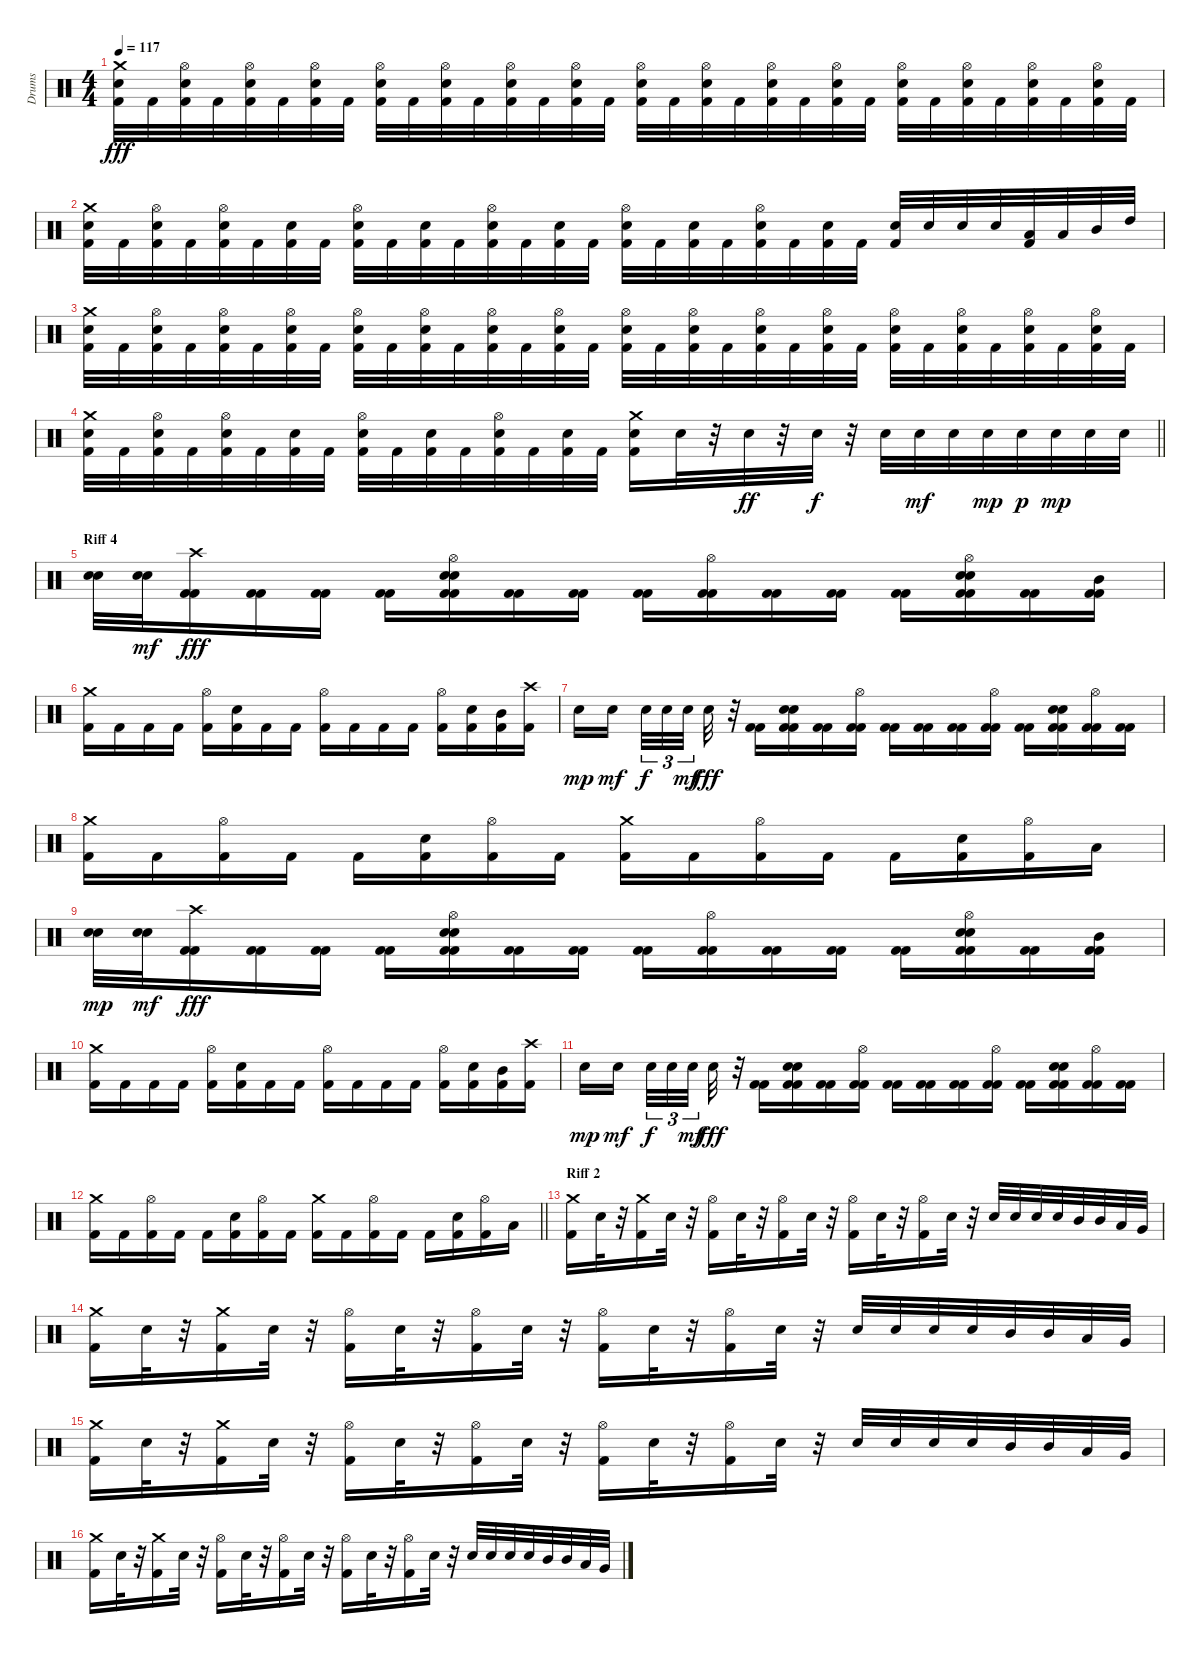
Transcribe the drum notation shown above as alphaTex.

\track ("Drums" "Drums") {instrument percussion}
\staff {score}
\articulation defaults
\ts (4 4)
\tempo 117
\clef neutral
\ks c
("Kick (hit) 2" "Snare (hit) 2" "Crash medium (hit)").32{dy fff} "Kick (hit) 2".32 ("Kick (hit) 2" "Snare (hit) 2" "Hi-Hat (open)").32 "Kick (hit) 2".32 ("Kick (hit) 2" "Snare (hit) 2" "Hi-Hat (open)").32 "Kick (hit) 2".32 ("Kick (hit) 2" "Snare (hit) 2" "Hi-Hat (open)").32 "Kick (hit) 2".32 ("Kick (hit) 2" "Snare (hit) 2" "Hi-Hat (open)").32 "Kick (hit) 2".32 ("Kick (hit) 2" "Snare (hit) 2" "Hi-Hat (open)").32 "Kick (hit) 2".32 ("Kick (hit) 2" "Snare (hit) 2" "Hi-Hat (open)").32 "Kick (hit) 2".32 ("Kick (hit) 2" "Snare (hit) 2" "Hi-Hat (open)").32 "Kick (hit) 2".32 ("Kick (hit) 2" "Snare (hit) 2" "Hi-Hat (open)").32 "Kick (hit) 2".32 ("Kick (hit) 2" "Snare (hit) 2" "Hi-Hat (open)").32 "Kick (hit) 2".32 ("Kick (hit) 2" "Snare (hit) 2" "Hi-Hat (open)").32 "Kick (hit) 2".32 ("Kick (hit) 2" "Snare (hit) 2" "Hi-Hat (open)").32 "Kick (hit) 2".32 ("Kick (hit) 2" "Snare (hit) 2" "Hi-Hat (open)").32 "Kick (hit) 2".32 ("Kick (hit) 2" "Snare (hit) 2" "Hi-Hat (open)").32 "Kick (hit) 2".32 ("Kick (hit) 2" "Snare (hit) 2" "Hi-Hat (open)").32 "Kick (hit) 2".32 ("Kick (hit) 2" "Snare (hit) 2" "Hi-Hat (open)").32 "Kick (hit) 2".32 |
("Kick (hit) 2" "Snare (hit) 2" "Crash medium (hit)").32 "Kick (hit) 2".32 ("Kick (hit) 2" "Snare (hit) 2" "Hi-Hat (open)").32 "Kick (hit) 2".32 ("Kick (hit) 2" "Snare (hit) 2" "Hi-Hat (open)").32 "Kick (hit) 2".32 ("Kick (hit) 2" "Snare (hit) 2").32 "Kick (hit) 2".32 ("Kick (hit) 2" "Snare (hit) 2" "Hi-Hat (open)").32 "Kick (hit) 2".32 ("Kick (hit) 2" "Snare (hit) 2").32 "Kick (hit) 2".32 ("Kick (hit) 2" "Snare (hit) 2" "Hi-Hat (open)").32 "Kick (hit) 2".32 ("Kick (hit) 2" "Snare (hit) 2").32 "Kick (hit) 2".32 ("Kick (hit) 2" "Snare (hit) 2" "Hi-Hat (open)").32 "Kick (hit) 2".32 ("Kick (hit) 2" "Snare (hit) 2").32 "Kick (hit) 2".32 ("Kick (hit) 2" "Snare (hit) 2" "Hi-Hat (open)").32 "Kick (hit) 2".32 ("Kick (hit) 2" "Snare (hit) 2").32 "Kick (hit) 2".32 ("Kick (hit) 2" "Snare (hit) 2").32 "Snare (hit) 2".32 "Snare (hit) 2".32 "Snare (hit) 2".32 ("Kick (hit) 2" "Low Tom (hit)").32 "Low Tom (hit)".32 "Mid Tom (hit)".32 "High Tom (hit)".32 |
("Kick (hit) 2" "Snare (hit) 2" "Crash medium (hit)").32 "Kick (hit) 2".32 ("Kick (hit) 2" "Snare (hit) 2" "Hi-Hat (open)").32 "Kick (hit) 2".32 ("Kick (hit) 2" "Snare (hit) 2" "Hi-Hat (open)").32 "Kick (hit) 2".32 ("Kick (hit) 2" "Snare (hit) 2" "Hi-Hat (open)").32 "Kick (hit) 2".32 ("Kick (hit) 2" "Snare (hit) 2" "Hi-Hat (open)").32 "Kick (hit) 2".32 ("Kick (hit) 2" "Snare (hit) 2" "Hi-Hat (open)").32 "Kick (hit) 2".32 ("Kick (hit) 2" "Snare (hit) 2" "Hi-Hat (open)").32 "Kick (hit) 2".32 ("Kick (hit) 2" "Snare (hit) 2" "Hi-Hat (open)").32 "Kick (hit) 2".32 ("Kick (hit) 2" "Snare (hit) 2" "Hi-Hat (open)").32 "Kick (hit) 2".32 ("Kick (hit) 2" "Snare (hit) 2" "Hi-Hat (open)").32 "Kick (hit) 2".32 ("Kick (hit) 2" "Snare (hit) 2" "Hi-Hat (open)").32 "Kick (hit) 2".32 ("Kick (hit) 2" "Snare (hit) 2" "Hi-Hat (open)").32 "Kick (hit) 2".32 ("Kick (hit) 2" "Snare (hit) 2" "Hi-Hat (open)").32 "Kick (hit) 2".32 ("Kick (hit) 2" "Snare (hit) 2" "Hi-Hat (open)").32 "Kick (hit) 2".32 ("Kick (hit) 2" "Snare (hit) 2" "Hi-Hat (open)").32 "Kick (hit) 2".32 ("Kick (hit) 2" "Snare (hit) 2" "Hi-Hat (open)").32 "Kick (hit) 2".32 |
\barLineRight lightlight
("Kick (hit) 2" "Snare (hit) 2" "Crash medium (hit)").32 "Kick (hit) 2".32 ("Kick (hit) 2" "Snare (hit) 2" "Hi-Hat (open)").32 "Kick (hit) 2".32 ("Kick (hit) 2" "Snare (hit) 2" "Hi-Hat (open)").32 "Kick (hit) 2".32 ("Kick (hit) 2" "Snare (hit) 2").32 "Kick (hit) 2".32 ("Kick (hit) 2" "Snare (hit) 2" "Hi-Hat (open)").32 "Kick (hit) 2".32 ("Kick (hit) 2" "Snare (hit) 2").32 "Kick (hit) 2".32 ("Kick (hit) 2" "Snare (hit) 2" "Hi-Hat (open)").32 "Kick (hit) 2".32 ("Kick (hit) 2" "Snare (hit) 2").32 "Kick (hit) 2".32 ("Kick (hit) 2" "Snare (hit) 2" "Crash medium (hit)").16 "Snare (hit) 2".32 r.32 "Snare (hit) 2".32{dy ff} r.32 "Snare (hit) 2".32{dy f} r.32 "Snare (hit) 2".32 "Snare (hit) 2".32{dy mf} "Snare (hit) 2".32 "Snare (hit) 2".32{dy mp} "Snare (hit) 2".32{dy p} "Snare (hit) 2".32{dy mp} "Snare (hit) 2".32 "Snare (hit) 2".32 |
\section ("" "Riff 4")
("Snare (hit) 2" "Snare (hit) 2").32 ("Snare (hit) 2" "Snare (hit) 2").32{dy mf} ("Kick (hit) 2" "Kick (hit) 2" "Crash high (hit)").16{dy fff} ("Kick (hit) 2" "Kick (hit) 2").16 ("Kick (hit) 2" "Kick (hit) 2").16 ("Kick (hit) 2" "Kick (hit) 2").16 ("Kick (hit) 2" "Kick (hit) 2" "Snare (hit) 2" "Snare (hit) 2" "Hi-Hat (open)").16 ("Kick (hit) 2" "Kick (hit) 2").16 ("Kick (hit) 2" "Kick (hit) 2").16 ("Kick (hit) 2" "Kick (hit) 2").16 ("Kick (hit) 2" "Kick (hit) 2" "Hi-Hat (open)").16 ("Kick (hit) 2" "Kick (hit) 2").16 ("Kick (hit) 2" "Kick (hit) 2").16 ("Kick (hit) 2" "Kick (hit) 2").16 ("Kick (hit) 2" "Kick (hit) 2" "Snare (hit) 2" "Snare (hit) 2" "Hi-Hat (open)").16 ("Kick (hit) 2" "Kick (hit) 2").16 ("Kick (hit) 2" "Kick (hit) 2" "Mid Tom (hit)").16 |
("Kick (hit) 2" "Crash medium (hit)").16 "Kick (hit) 2".16 "Kick (hit) 2".16 "Kick (hit) 2".16 ("Kick (hit) 2" "Hi-Hat (open)").16 ("Kick (hit) 2" "Snare (hit) 2").16 "Kick (hit) 2".16 "Kick (hit) 2".16 ("Kick (hit) 2" "Hi-Hat (open)").16 "Kick (hit) 2".16 "Kick (hit) 2".16 "Kick (hit) 2".16 ("Kick (hit) 2" "Hi-Hat (open)").16 ("Kick (hit) 2" "Snare (hit) 2").16 ("Kick (hit) 2" "Mid Tom (hit)").16 ("Kick (hit) 2" "Crash high (hit)").16 |
"Snare (hit) 2".16{dy mp} "Snare (hit) 2".16{dy mf beam splitsecondary} "Snare (hit) 2".32{tu (3 2) dy f} "Snare (hit) 2".32{tu (3 2)} "Snare (hit) 2".32{tu (3 2) dy mf beam splitsecondary} "Snare (hit) 2".32{dy fff} r.32 ("Kick (hit) 2" "Kick (hit) 2").16 ("Kick (hit) 2" "Kick (hit) 2" "Snare (hit) 2" "Snare (hit) 2").16 ("Kick (hit) 2" "Kick (hit) 2").16 ("Kick (hit) 2" "Kick (hit) 2" "Hi-Hat (open)").16 ("Kick (hit) 2" "Kick (hit) 2").16 ("Kick (hit) 2" "Kick (hit) 2").16 ("Kick (hit) 2" "Kick (hit) 2").16 ("Kick (hit) 2" "Kick (hit) 2" "Hi-Hat (open)").16 ("Kick (hit) 2" "Kick (hit) 2").16 ("Kick (hit) 2" "Kick (hit) 2" "Snare (hit) 2" "Snare (hit) 2").16 ("Kick (hit) 2" "Kick (hit) 2" "Hi-Hat (open)").16 ("Kick (hit) 2" "Kick (hit) 2").16 |
("Kick (hit) 2" "Crash medium (hit)").16 "Kick (hit) 2".16 ("Kick (hit) 2" "Hi-Hat (open)").16 "Kick (hit) 2".16 "Kick (hit) 2".16 ("Kick (hit) 2" "Snare (hit) 2").16 ("Kick (hit) 2" "Hi-Hat (open)").16 "Kick (hit) 2".16 ("Kick (hit) 2" "Crash medium (hit)").16 "Kick (hit) 2".16 ("Kick (hit) 2" "Hi-Hat (open)").16 "Kick (hit) 2".16 "Kick (hit) 2".16 ("Kick (hit) 2" "Snare (hit) 2").16 ("Kick (hit) 2" "Hi-Hat (open)").16 "Low Tom (hit)".16 |
("Snare (hit) 2" "Snare (hit) 2").32{dy mp} ("Snare (hit) 2" "Snare (hit) 2").32{dy mf} ("Kick (hit) 2" "Kick (hit) 2" "Crash high (hit)").16{dy fff} ("Kick (hit) 2" "Kick (hit) 2").16 ("Kick (hit) 2" "Kick (hit) 2").16 ("Kick (hit) 2" "Kick (hit) 2").16 ("Kick (hit) 2" "Kick (hit) 2" "Snare (hit) 2" "Snare (hit) 2" "Hi-Hat (open)").16 ("Kick (hit) 2" "Kick (hit) 2").16 ("Kick (hit) 2" "Kick (hit) 2").16 ("Kick (hit) 2" "Kick (hit) 2").16 ("Kick (hit) 2" "Kick (hit) 2" "Hi-Hat (open)").16 ("Kick (hit) 2" "Kick (hit) 2").16 ("Kick (hit) 2" "Kick (hit) 2").16 ("Kick (hit) 2" "Kick (hit) 2").16 ("Kick (hit) 2" "Kick (hit) 2" "Snare (hit) 2" "Snare (hit) 2" "Hi-Hat (open)").16 ("Kick (hit) 2" "Kick (hit) 2").16 ("Kick (hit) 2" "Kick (hit) 2" "Mid Tom (hit)").16 |
("Kick (hit) 2" "Crash medium (hit)").16 "Kick (hit) 2".16 "Kick (hit) 2".16 "Kick (hit) 2".16 ("Kick (hit) 2" "Hi-Hat (open)").16 ("Kick (hit) 2" "Snare (hit) 2").16 "Kick (hit) 2".16 "Kick (hit) 2".16 ("Kick (hit) 2" "Hi-Hat (open)").16 "Kick (hit) 2".16 "Kick (hit) 2".16 "Kick (hit) 2".16 ("Kick (hit) 2" "Hi-Hat (open)").16 ("Kick (hit) 2" "Snare (hit) 2").16 ("Kick (hit) 2" "Mid Tom (hit)").16 ("Kick (hit) 2" "Crash high (hit)").16 |
"Snare (hit) 2".16{dy mp} "Snare (hit) 2".16{dy mf beam splitsecondary} "Snare (hit) 2".32{tu (3 2) dy f} "Snare (hit) 2".32{tu (3 2)} "Snare (hit) 2".32{tu (3 2) dy mf beam splitsecondary} "Snare (hit) 2".32{dy fff} r.32 ("Kick (hit) 2" "Kick (hit) 2").16 ("Kick (hit) 2" "Kick (hit) 2" "Snare (hit) 2" "Snare (hit) 2").16 ("Kick (hit) 2" "Kick (hit) 2").16 ("Kick (hit) 2" "Kick (hit) 2" "Hi-Hat (open)").16 ("Kick (hit) 2" "Kick (hit) 2").16 ("Kick (hit) 2" "Kick (hit) 2").16 ("Kick (hit) 2" "Kick (hit) 2").16 ("Kick (hit) 2" "Kick (hit) 2" "Hi-Hat (open)").16 ("Kick (hit) 2" "Kick (hit) 2").16 ("Kick (hit) 2" "Kick (hit) 2" "Snare (hit) 2" "Snare (hit) 2").16 ("Kick (hit) 2" "Kick (hit) 2" "Hi-Hat (open)").16 ("Kick (hit) 2" "Kick (hit) 2").16 |
\barLineRight lightlight
("Kick (hit) 2" "Crash medium (hit)").16 "Kick (hit) 2".16 ("Kick (hit) 2" "Hi-Hat (open)").16 "Kick (hit) 2".16 "Kick (hit) 2".16 ("Kick (hit) 2" "Snare (hit) 2").16 ("Kick (hit) 2" "Hi-Hat (open)").16 "Kick (hit) 2".16 ("Kick (hit) 2" "Crash medium (hit)").16 "Kick (hit) 2".16 ("Kick (hit) 2" "Hi-Hat (open)").16 "Kick (hit) 2".16 "Kick (hit) 2".16 ("Kick (hit) 2" "Snare (hit) 2").16 ("Kick (hit) 2" "Hi-Hat (open)").16 "Low Tom (hit)".16 |
\section ("" "Riff 2")
("Kick (hit) 2" "Crash medium (hit)").16 "Snare (hit) 2".32 r.32 ("Kick (hit) 2" "Crash medium (hit)").16 "Snare (hit) 2".32 r.32 ("Kick (hit) 2" "Hi-Hat (open)").16 "Snare (hit) 2".32 r.32 ("Kick (hit) 2" "Hi-Hat (open)").16 "Snare (hit) 2".32 r.32 ("Kick (hit) 2" "Hi-Hat (open)").16 "Snare (hit) 2".32 r.32 ("Kick (hit) 2" "Hi-Hat (open)").16 "Snare (hit) 2".32 r.32 "Snare (hit) 2".32 "Snare (hit) 2".32 "Snare (hit) 2".32 "Snare (hit) 2".32 "Mid Tom (hit)".32 "Mid Tom (hit)".32 "Low Tom (hit)".32 "Very Low Tom (hit)".32 |
("Kick (hit) 2" "Crash medium (hit)").16 "Snare (hit) 2".32 r.32 ("Kick (hit) 2" "Crash medium (hit)").16 "Snare (hit) 2".32 r.32 ("Kick (hit) 2" "Hi-Hat (open)").16 "Snare (hit) 2".32 r.32 ("Kick (hit) 2" "Hi-Hat (open)").16 "Snare (hit) 2".32 r.32 ("Kick (hit) 2" "Hi-Hat (open)").16 "Snare (hit) 2".32 r.32 ("Kick (hit) 2" "Hi-Hat (open)").16 "Snare (hit) 2".32 r.32 "Snare (hit) 2".32 "Snare (hit) 2".32 "Snare (hit) 2".32 "Snare (hit) 2".32 "Mid Tom (hit)".32 "Mid Tom (hit)".32 "Low Tom (hit)".32 "Very Low Tom (hit)".32 |
("Kick (hit) 2" "Crash medium (hit)").16 "Snare (hit) 2".32 r.32 ("Kick (hit) 2" "Crash medium (hit)").16 "Snare (hit) 2".32 r.32 ("Kick (hit) 2" "Hi-Hat (open)").16 "Snare (hit) 2".32 r.32 ("Kick (hit) 2" "Hi-Hat (open)").16 "Snare (hit) 2".32 r.32 ("Kick (hit) 2" "Hi-Hat (open)").16 "Snare (hit) 2".32 r.32 ("Kick (hit) 2" "Hi-Hat (open)").16 "Snare (hit) 2".32 r.32 "Snare (hit) 2".32 "Snare (hit) 2".32 "Snare (hit) 2".32 "Snare (hit) 2".32 "Mid Tom (hit)".32 "Mid Tom (hit)".32 "Low Tom (hit)".32 "Very Low Tom (hit)".32 |
("Kick (hit) 2" "Crash medium (hit)").16 "Snare (hit) 2".32 r.32 ("Kick (hit) 2" "Crash medium (hit)").16 "Snare (hit) 2".32 r.32 ("Kick (hit) 2" "Hi-Hat (open)").16 "Snare (hit) 2".32 r.32 ("Kick (hit) 2" "Hi-Hat (open)").16 "Snare (hit) 2".32 r.32 ("Kick (hit) 2" "Hi-Hat (open)").16 "Snare (hit) 2".32 r.32 ("Kick (hit) 2" "Hi-Hat (open)").16 "Snare (hit) 2".32 r.32 "Snare (hit) 2".32 "Snare (hit) 2".32 "Snare (hit) 2".32 "Snare (hit) 2".32 "Mid Tom (hit)".32 "Mid Tom (hit)".32 "Low Tom (hit)".32 "Very Low Tom (hit)".32
